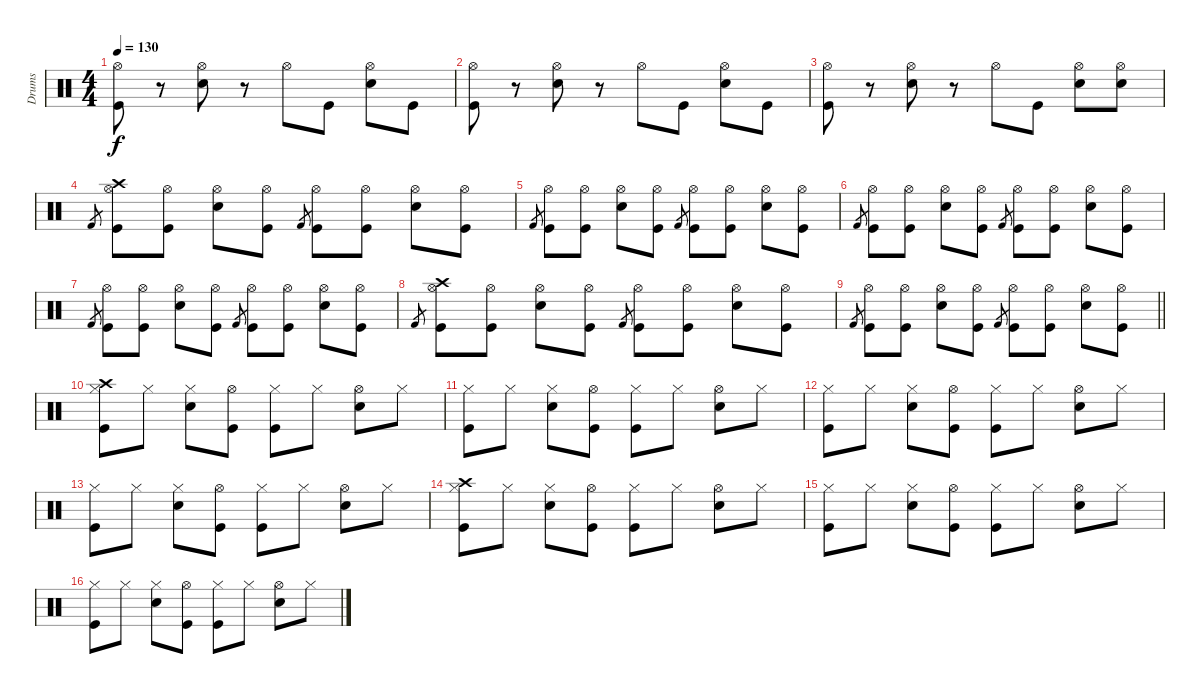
\track ("Drums" "Drums") {instrument percussion}
\staff {score}
\articulation defaults
\ts (4 4)
\tempo 130
\clef neutral
\ks c
("Hi-Hat (open)" "Kick (hit)").8{dy f} r.8 ("Hi-Hat (open)" "Snare (hit) 2").8 r.8 "Hi-Hat (open)".8 "Kick (hit)".8 ("Hi-Hat (open)" "Snare (hit) 2").8 "Kick (hit)".8 |
("Hi-Hat (open)" "Kick (hit)").8 r.8 ("Hi-Hat (open)" "Snare (hit) 2").8 r.8 "Hi-Hat (open)".8 "Kick (hit)".8 ("Hi-Hat (open)" "Snare (hit) 2").8 "Kick (hit)".8 |
("Hi-Hat (open)" "Kick (hit)").8 r.8 ("Hi-Hat (open)" "Snare (hit) 2").8 r.8 "Hi-Hat (open)".8 "Kick (hit)".8 ("Hi-Hat (open)" "Snare (hit) 2").8 ("Hi-Hat (open)" "Snare (hit) 2").8 |
"Kick (hit) 2".8{gr} ("Crash high (hit)" "Hi-Hat (open)" "Kick (hit)").8 ("Hi-Hat (open)" "Kick (hit)").8 ("Hi-Hat (open)" "Snare (hit) 2").8 ("Hi-Hat (open)" "Kick (hit)").8 "Kick (hit) 2".8{gr} ("Hi-Hat (open)" "Kick (hit)").8 ("Hi-Hat (open)" "Kick (hit)").8 ("Hi-Hat (open)" "Snare (hit) 2").8 ("Hi-Hat (open)" "Kick (hit)").8 |
"Kick (hit) 2".8{gr} ("Hi-Hat (open)" "Kick (hit)").8 ("Hi-Hat (open)" "Kick (hit)").8 ("Hi-Hat (open)" "Snare (hit) 2").8 ("Hi-Hat (open)" "Kick (hit)").8 "Kick (hit) 2".8{gr} ("Hi-Hat (open)" "Kick (hit)").8 ("Hi-Hat (open)" "Kick (hit)").8 ("Hi-Hat (open)" "Snare (hit) 2").8 ("Hi-Hat (open)" "Kick (hit)").8 |
"Kick (hit) 2".8{gr} ("Hi-Hat (open)" "Kick (hit)").8 ("Hi-Hat (open)" "Kick (hit)").8 ("Hi-Hat (open)" "Snare (hit) 2").8 ("Hi-Hat (open)" "Kick (hit)").8 "Kick (hit) 2".8{gr} ("Hi-Hat (open)" "Kick (hit)").8 ("Hi-Hat (open)" "Kick (hit)").8 ("Hi-Hat (open)" "Snare (hit) 2").8 ("Hi-Hat (open)" "Kick (hit)").8 |
"Kick (hit) 2".8{gr} ("Hi-Hat (open)" "Kick (hit)").8 ("Hi-Hat (open)" "Kick (hit)").8 ("Hi-Hat (open)" "Snare (hit) 2").8 ("Hi-Hat (open)" "Kick (hit)").8 "Kick (hit) 2".8{gr} ("Hi-Hat (open)" "Kick (hit)").8 ("Hi-Hat (open)" "Kick (hit)").8 ("Hi-Hat (open)" "Snare (hit) 2").8 ("Hi-Hat (open)" "Kick (hit)").8 |
"Kick (hit) 2".8{gr} ("Crash high (hit)" "Hi-Hat (open)" "Kick (hit)").8 ("Hi-Hat (open)" "Kick (hit)").8 ("Hi-Hat (open)" "Snare (hit) 2").8 ("Hi-Hat (open)" "Kick (hit)").8 "Kick (hit) 2".8{gr} ("Hi-Hat (open)" "Kick (hit)").8 ("Hi-Hat (open)" "Kick (hit)").8 ("Hi-Hat (open)" "Snare (hit) 2").8 ("Hi-Hat (open)" "Kick (hit)").8 |
\barLineRight lightlight "Kick (hit) 2".8{gr}
("Hi-Hat (open)" "Kick (hit)").8 ("Hi-Hat (open)" "Kick (hit)").8 ("Hi-Hat (open)" "Snare (hit) 2").8 ("Hi-Hat (open)" "Kick (hit)").8 "Kick (hit) 2".8{gr} ("Hi-Hat (open)" "Kick (hit)").8 ("Hi-Hat (open)" "Kick (hit)").8 ("Hi-Hat (open)" "Snare (hit) 2").8 ("Hi-Hat (open)" "Kick (hit)").8 |
\section ("" "")
("Crash high (hit)" "Hi-Hat (closed)" "Kick (hit)").8 "Hi-Hat (closed)".8 ("Hi-Hat (closed)" "Snare (hit) 2").8 ("Hi-Hat (open)" "Kick (hit)").8 ("Hi-Hat (closed)" "Kick (hit)").8 "Hi-Hat (closed)".8 ("Hi-Hat (open)" "Snare (hit) 2").8 "Hi-Hat (closed)".8 |
("Hi-Hat (closed)" "Kick (hit)").8 "Hi-Hat (closed)".8 ("Hi-Hat (closed)" "Snare (hit) 2").8 ("Hi-Hat (open)" "Kick (hit)").8 ("Hi-Hat (closed)" "Kick (hit)").8 "Hi-Hat (closed)".8 ("Hi-Hat (open)" "Snare (hit) 2").8 "Hi-Hat (closed)".8 |
("Hi-Hat (closed)" "Kick (hit)").8 "Hi-Hat (closed)".8 ("Hi-Hat (closed)" "Snare (hit) 2").8 ("Hi-Hat (open)" "Kick (hit)").8 ("Hi-Hat (closed)" "Kick (hit)").8 "Hi-Hat (closed)".8 ("Hi-Hat (open)" "Snare (hit) 2").8 "Hi-Hat (closed)".8 |
("Hi-Hat (closed)" "Kick (hit)").8 "Hi-Hat (closed)".8 ("Hi-Hat (closed)" "Snare (hit) 2").8 ("Hi-Hat (open)" "Kick (hit)").8 ("Hi-Hat (closed)" "Kick (hit)").8 "Hi-Hat (closed)".8 ("Hi-Hat (open)" "Snare (hit) 2").8 "Hi-Hat (closed)".8 |
("Crash high (hit)" "Hi-Hat (closed)" "Kick (hit)").8 "Hi-Hat (closed)".8 ("Hi-Hat (closed)" "Snare (hit) 2").8 ("Hi-Hat (open)" "Kick (hit)").8 ("Hi-Hat (closed)" "Kick (hit)").8 "Hi-Hat (closed)".8 ("Hi-Hat (open)" "Snare (hit) 2").8 "Hi-Hat (closed)".8 |
("Hi-Hat (closed)" "Kick (hit)").8 "Hi-Hat (closed)".8 ("Hi-Hat (closed)" "Snare (hit) 2").8 ("Hi-Hat (open)" "Kick (hit)").8 ("Hi-Hat (closed)" "Kick (hit)").8 "Hi-Hat (closed)".8 ("Hi-Hat (open)" "Snare (hit) 2").8 "Hi-Hat (closed)".8 |
("Hi-Hat (closed)" "Kick (hit)").8 "Hi-Hat (closed)".8 ("Hi-Hat (closed)" "Snare (hit) 2").8 ("Hi-Hat (open)" "Kick (hit)").8 ("Hi-Hat (closed)" "Kick (hit)").8 "Hi-Hat (closed)".8 ("Hi-Hat (open)" "Snare (hit) 2").8 "Hi-Hat (closed)".8
